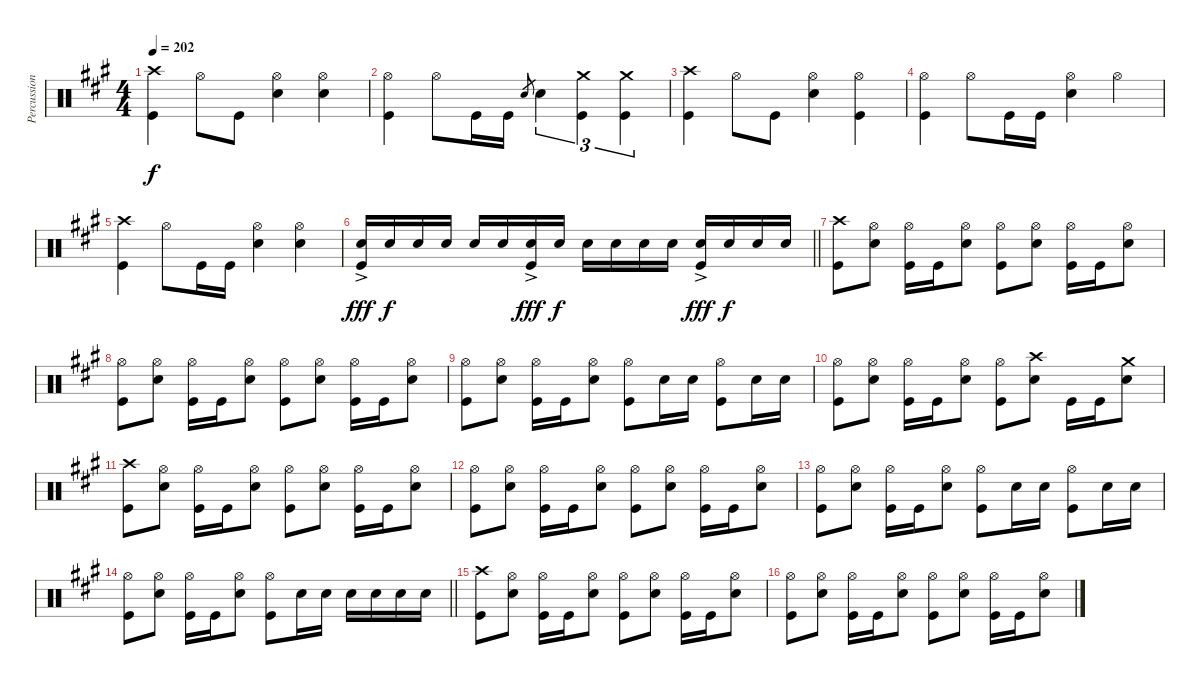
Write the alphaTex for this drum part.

\track ("Percussion" "Percussion") {instrument percussion}
\staff {score}
\articulation defaults
\ts (4 4)
\tempo 202
\clef neutral
\ks a
("Crash high (hit)" "Kick (hit)").4{dy f} "Hi-Hat (open)".8 "Kick (hit)".8 ("Hi-Hat (open)" "Electric Snare (hit)").4 ("Hi-Hat (open)" "Electric Snare (hit)").4 |
("Hi-Hat (open)" "Kick (hit)").4 "Hi-Hat (open)".8 "Kick (hit)".16 "Kick (hit)".16 "Electric Snare (hit)".8{gr} "Electric Snare (hit)".4{tu (3 2)} ("Crash medium (hit)" "Kick (hit)").4{tu (3 2)} ("Crash medium (hit)" "Kick (hit)").4{tu (3 2)} |
("Crash high (hit)" "Kick (hit)").4 "Hi-Hat (open)".8 "Kick (hit)".8 ("Hi-Hat (open)" "Electric Snare (hit)").4 ("Hi-Hat (open)" "Kick (hit)").4 |
("Hi-Hat (open)" "Kick (hit)").4 "Hi-Hat (open)".8 "Kick (hit)".16 "Kick (hit)".16 ("Hi-Hat (open)" "Electric Snare (hit)").4 "Hi-Hat (open)".4 |
("Crash high (hit)" "Kick (hit)").4 "Hi-Hat (open)".8 "Kick (hit)".16 "Kick (hit)".16 ("Hi-Hat (open)" "Electric Snare (hit)").4 ("Hi-Hat (open)" "Electric Snare (hit)").4 |
\barLineRight lightlight
("Electric Snare (hit)"{ac} "Kick (hit)").16{dy fff} "Electric Snare (hit)".16{dy f} "Electric Snare (hit)".16 "Electric Snare (hit)".16 "Electric Snare (hit)".16 "Electric Snare (hit)".16 ("Electric Snare (hit)"{ac} "Kick (hit)").16{dy fff} "Electric Snare (hit)".16{dy f} "Electric Snare (hit)".16 "Electric Snare (hit)".16 "Electric Snare (hit)".16 "Electric Snare (hit)".16 ("Electric Snare (hit)"{ac} "Kick (hit)").16{dy fff} "Electric Snare (hit)".16{dy f} "Electric Snare (hit)".16 "Electric Snare (hit)".16 |
("Crash high (hit)" "Kick (hit)").8 ("Hi-Hat (open)" "Electric Snare (hit)").8 ("Hi-Hat (open)" "Kick (hit)").16 "Kick (hit)".16 ("Hi-Hat (open)" "Electric Snare (hit)").8 ("Hi-Hat (open)" "Kick (hit)").8 ("Hi-Hat (open)" "Electric Snare (hit)").8 ("Hi-Hat (open)" "Kick (hit)").16 "Kick (hit)".16 ("Hi-Hat (open)" "Electric Snare (hit)").8 |
("Hi-Hat (open)" "Kick (hit)").8 ("Hi-Hat (open)" "Electric Snare (hit)").8 ("Hi-Hat (open)" "Kick (hit)").16 "Kick (hit)".16 ("Hi-Hat (open)" "Electric Snare (hit)").8 ("Hi-Hat (open)" "Kick (hit)").8 ("Hi-Hat (open)" "Electric Snare (hit)").8 ("Hi-Hat (open)" "Kick (hit)").16 "Kick (hit)".16 ("Hi-Hat (open)" "Electric Snare (hit)").8 |
("Hi-Hat (open)" "Kick (hit)").8 ("Hi-Hat (open)" "Electric Snare (hit)").8 ("Hi-Hat (open)" "Kick (hit)").16 "Kick (hit)".16 ("Hi-Hat (open)" "Electric Snare (hit)").8 ("Hi-Hat (open)" "Kick (hit)").8 "Electric Snare (hit)".16 "Electric Snare (hit)".16 ("Hi-Hat (open)" "Kick (hit)").8 "Electric Snare (hit)".16 "Electric Snare (hit)".16 |
("Hi-Hat (open)" "Kick (hit)").8 ("Hi-Hat (open)" "Electric Snare (hit)").8 ("Hi-Hat (open)" "Kick (hit)").16 "Kick (hit)".16 ("Hi-Hat (open)" "Electric Snare (hit)").8 ("Hi-Hat (open)" "Kick (hit)").8 ("Crash high (hit)" "Electric Snare (hit)").8 "Kick (hit)".16 "Kick (hit)".16 ("Crash medium (hit)" "Electric Snare (hit)").8 |
("Crash high (hit)" "Kick (hit)").8 ("Hi-Hat (open)" "Electric Snare (hit)").8 ("Hi-Hat (open)" "Kick (hit)").16 "Kick (hit)".16 ("Hi-Hat (open)" "Electric Snare (hit)").8 ("Hi-Hat (open)" "Kick (hit)").8 ("Hi-Hat (open)" "Electric Snare (hit)").8 ("Hi-Hat (open)" "Kick (hit)").16 "Kick (hit)".16 ("Hi-Hat (open)" "Electric Snare (hit)").8 |
("Hi-Hat (open)" "Kick (hit)").8 ("Hi-Hat (open)" "Electric Snare (hit)").8 ("Hi-Hat (open)" "Kick (hit)").16 "Kick (hit)".16 ("Hi-Hat (open)" "Electric Snare (hit)").8 ("Hi-Hat (open)" "Kick (hit)").8 ("Hi-Hat (open)" "Electric Snare (hit)").8 ("Hi-Hat (open)" "Kick (hit)").16 "Kick (hit)".16 ("Hi-Hat (open)" "Electric Snare (hit)").8 |
("Hi-Hat (open)" "Kick (hit)").8 ("Hi-Hat (open)" "Electric Snare (hit)").8 ("Hi-Hat (open)" "Kick (hit)").16 "Kick (hit)".16 ("Hi-Hat (open)" "Electric Snare (hit)").8 ("Hi-Hat (open)" "Kick (hit)").8 "Electric Snare (hit)".16 "Electric Snare (hit)".16 ("Hi-Hat (open)" "Kick (hit)").8 "Electric Snare (hit)".16 "Electric Snare (hit)".16 |
\barLineRight lightlight
("Hi-Hat (open)" "Kick (hit)").8 ("Hi-Hat (open)" "Electric Snare (hit)").8 ("Hi-Hat (open)" "Kick (hit)").16 "Kick (hit)".16 ("Hi-Hat (open)" "Electric Snare (hit)").8 ("Hi-Hat (open)" "Kick (hit)").8 "Electric Snare (hit)".16 "Electric Snare (hit)".16 "Electric Snare (hit)".16 "Electric Snare (hit)".16 "Electric Snare (hit)".16 "Electric Snare (hit)".16 |
("Crash high (hit)" "Kick (hit)").8 ("Hi-Hat (open)" "Electric Snare (hit)").8 ("Hi-Hat (open)" "Kick (hit)").16 "Kick (hit)".16 ("Hi-Hat (open)" "Electric Snare (hit)").8 ("Hi-Hat (open)" "Kick (hit)").8 ("Hi-Hat (open)" "Electric Snare (hit)").8 ("Hi-Hat (open)" "Kick (hit)").16 "Kick (hit)".16 ("Hi-Hat (open)" "Electric Snare (hit)").8 |
("Hi-Hat (open)" "Kick (hit)").8 ("Hi-Hat (open)" "Electric Snare (hit)").8 ("Hi-Hat (open)" "Kick (hit)").16 "Kick (hit)".16 ("Hi-Hat (open)" "Electric Snare (hit)").8 ("Hi-Hat (open)" "Kick (hit)").8 ("Hi-Hat (open)" "Electric Snare (hit)").8 ("Hi-Hat (open)" "Kick (hit)").16 "Kick (hit)".16 ("Hi-Hat (open)" "Electric Snare (hit)").8
